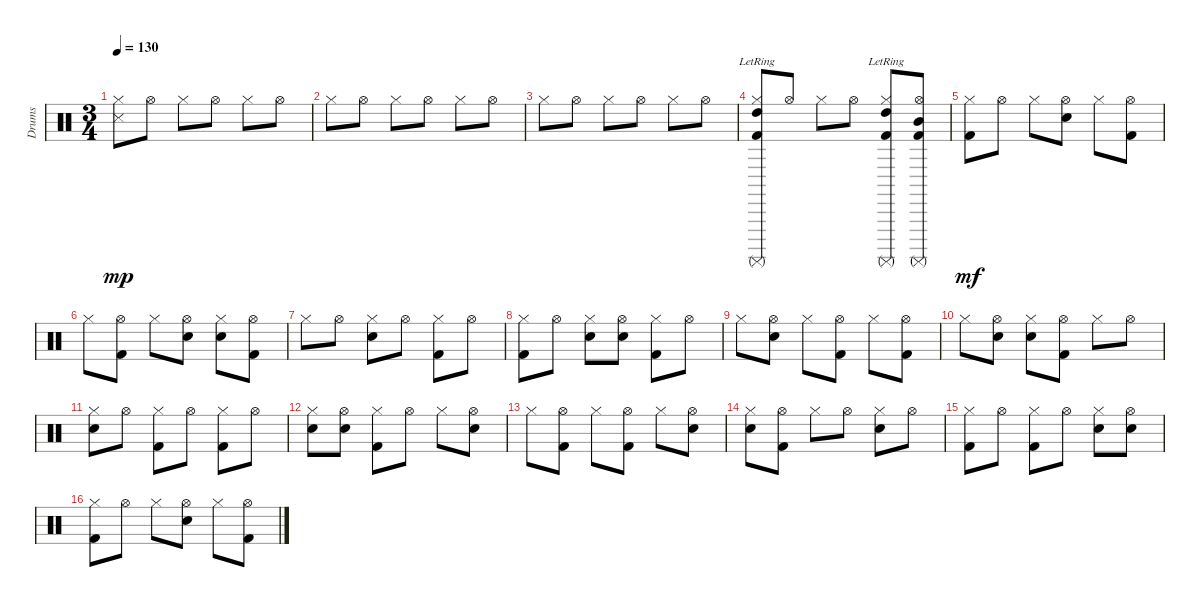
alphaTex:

\track ("Drums" "Drums") {instrument percussion}
\staff {score}
\articulation defaults
\ts (3 4)
\tempo 130
\clef neutral
\ks c
("Snare (side stick) 3" "Hi-Hat (closed)").8{dy mp} "Hi-Hat (open)".8 "Hi-Hat (closed)".8 "Hi-Hat (open)".8 "Hi-Hat (closed)".8 "Hi-Hat (open)".8 |
"Hi-Hat (closed)".8 "Hi-Hat (open)".8 "Hi-Hat (closed)".8 "Hi-Hat (open)".8 "Hi-Hat (closed)".8 "Hi-Hat (open)".8 |
"Hi-Hat (closed)".8 "Hi-Hat (open)".8 "Hi-Hat (closed)".8 "Hi-Hat (open)".8 "Hi-Hat (closed)".8 "Hi-Hat (open)".8 |
("Kick (hit) 2" "High Tom (hit)"{lr} "Surdo (mute)" "Hi-Hat (closed)").8 "Hi-Hat (open)".8 "Hi-Hat (closed)".8 "Hi-Hat (open)".8 ("Kick (hit) 2" "High Tom (hit)"{lr} "Surdo (mute)" "Hi-Hat (closed)").8 ("Kick (hit) 2" "Mid Tom (hit)" "Surdo (mute)" "Hi-Hat (open)").8 |
("Kick (hit) 2" "Hi-Hat (closed)").8{dy mf} "Hi-Hat (open)".8 "Hi-Hat (closed)".8 ("Electric Snare (hit)" "Hi-Hat (open)").8 "Hi-Hat (closed)".8 ("Kick (hit) 2" "Hi-Hat (open)").8 |
"Hi-Hat (closed)".8 ("Kick (hit) 2" "Hi-Hat (open)").8 "Hi-Hat (closed)".8 ("Electric Snare (hit)" "Hi-Hat (open)").8 ("Electric Snare (hit)" "Hi-Hat (closed)").8 ("Kick (hit) 2" "Hi-Hat (open)").8 |
"Hi-Hat (closed)".8 "Hi-Hat (open)".8 ("Electric Snare (hit)" "Hi-Hat (closed)").8 "Hi-Hat (open)".8 ("Kick (hit) 2" "Hi-Hat (closed)").8 "Hi-Hat (open)".8 |
("Kick (hit) 2" "Hi-Hat (closed)").8 "Hi-Hat (open)".8 ("Electric Snare (hit)" "Hi-Hat (closed)").8 ("Electric Snare (hit)" "Hi-Hat (open)").8 ("Kick (hit) 2" "Hi-Hat (closed)").8 "Hi-Hat (open)".8 |
"Hi-Hat (closed)".8 ("Electric Snare (hit)" "Hi-Hat (open)").8 "Hi-Hat (closed)".8 ("Kick (hit) 2" "Hi-Hat (open)").8 "Hi-Hat (closed)".8 ("Kick (hit) 2" "Hi-Hat (open)").8 |
"Hi-Hat (closed)".8 ("Electric Snare (hit)" "Hi-Hat (open)").8 ("Electric Snare (hit)" "Hi-Hat (closed)").8 ("Kick (hit) 2" "Hi-Hat (open)").8 "Hi-Hat (closed)".8 "Hi-Hat (open)".8 |
("Electric Snare (hit)" "Hi-Hat (closed)").8 "Hi-Hat (open)".8 ("Kick (hit) 2" "Hi-Hat (closed)").8 "Hi-Hat (open)".8 ("Kick (hit) 2" "Hi-Hat (closed)").8 "Hi-Hat (open)".8 |
("Electric Snare (hit)" "Hi-Hat (closed)").8 ("Electric Snare (hit)" "Hi-Hat (open)").8 ("Kick (hit) 2" "Hi-Hat (closed)").8 "Hi-Hat (open)".8 "Hi-Hat (closed)".8 ("Electric Snare (hit)" "Hi-Hat (open)").8 |
"Hi-Hat (closed)".8 ("Kick (hit) 2" "Hi-Hat (open)").8 "Hi-Hat (closed)".8 ("Kick (hit) 2" "Hi-Hat (open)").8 "Hi-Hat (closed)".8 ("Electric Snare (hit)" "Hi-Hat (open)").8 |
("Electric Snare (hit)" "Hi-Hat (closed)").8 ("Kick (hit) 2" "Hi-Hat (open)").8 "Hi-Hat (closed)".8 "Hi-Hat (open)".8 ("Electric Snare (hit)" "Hi-Hat (closed)").8 "Hi-Hat (open)".8 |
("Kick (hit) 2" "Hi-Hat (closed)").8 "Hi-Hat (open)".8 ("Kick (hit) 2" "Hi-Hat (closed)").8 "Hi-Hat (open)".8 ("Electric Snare (hit)" "Hi-Hat (closed)").8 ("Electric Snare (hit)" "Hi-Hat (open)").8 |
("Kick (hit) 2" "Hi-Hat (closed)").8 "Hi-Hat (open)".8 "Hi-Hat (closed)".8 ("Electric Snare (hit)" "Hi-Hat (open)").8 "Hi-Hat (closed)".8 ("Kick (hit) 2" "Hi-Hat (open)").8
